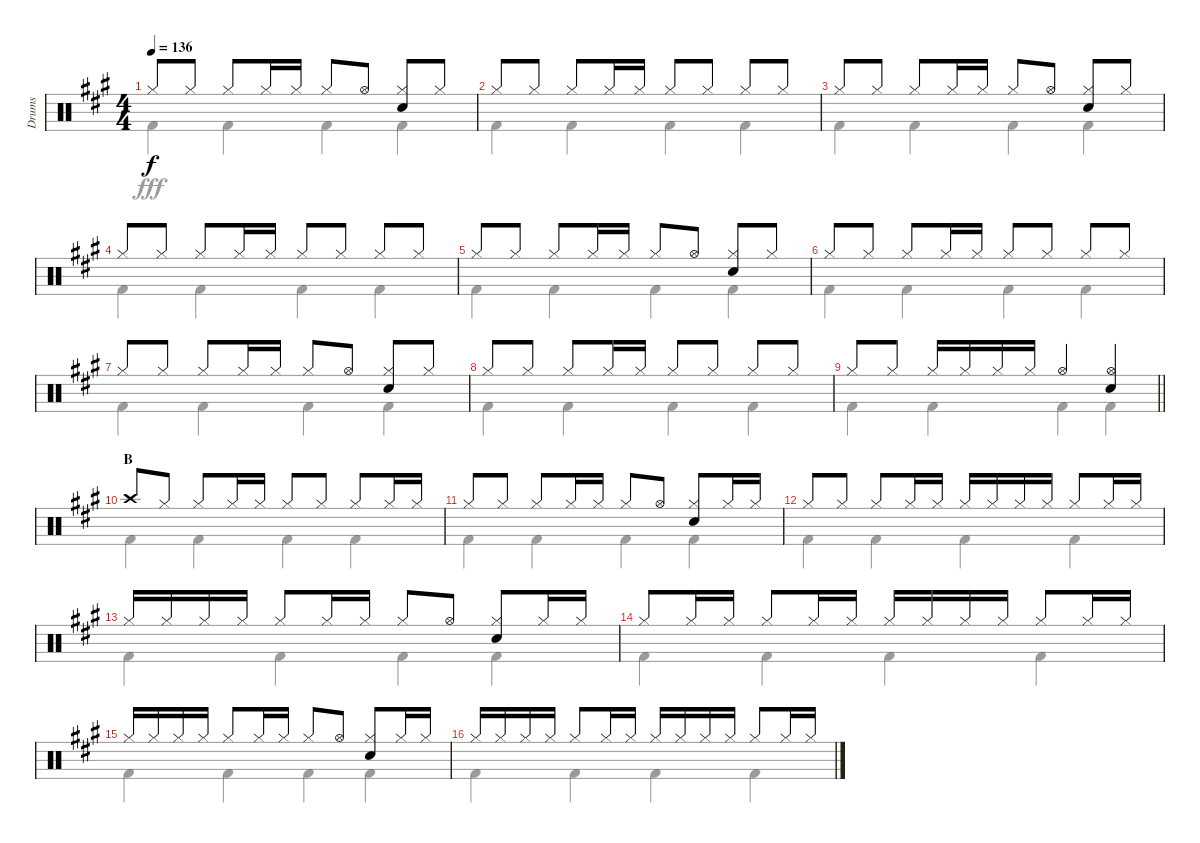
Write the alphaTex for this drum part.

\track ("Drums" "Drums") {instrument percussion}
\staff {score}
\articulation defaults
\voice
\ts (4 4)
\tempo 136
\clef neutral
\ks a "Hi-Hat (closed)".8{dy f} "Hi-Hat (closed)".8 "Hi-Hat (closed)".8 "Hi-Hat (closed)".16 "Hi-Hat (closed)".16 "Hi-Hat (closed)".8 "Hi-Hat (open)".8
("Hi-Hat (closed)" "Snare (hit) 2").8 "Hi-Hat (closed)".8 |
"Hi-Hat (closed)".8 "Hi-Hat (closed)".8 "Hi-Hat (closed)".8 "Hi-Hat (closed)".16 "Hi-Hat (closed)".16 "Hi-Hat (closed)".8 "Hi-Hat (closed)".8 "Hi-Hat (closed)".8 "Hi-Hat (closed)".8 |
"Hi-Hat (closed)".8 "Hi-Hat (closed)".8 "Hi-Hat (closed)".8 "Hi-Hat (closed)".16 "Hi-Hat (closed)".16 "Hi-Hat (closed)".8 "Hi-Hat (open)".8 ("Hi-Hat (closed)" "Snare (hit) 2").8 "Hi-Hat (closed)".8 |
"Hi-Hat (closed)".8 "Hi-Hat (closed)".8 "Hi-Hat (closed)".8 "Hi-Hat (closed)".16 "Hi-Hat (closed)".16 "Hi-Hat (closed)".8 "Hi-Hat (closed)".8 "Hi-Hat (closed)".8 "Hi-Hat (closed)".8 |
"Hi-Hat (closed)".8 "Hi-Hat (closed)".8 "Hi-Hat (closed)".8 "Hi-Hat (closed)".16 "Hi-Hat (closed)".16 "Hi-Hat (closed)".8 "Hi-Hat (open)".8 ("Hi-Hat (closed)" "Snare (hit) 2").8 "Hi-Hat (closed)".8 |
"Hi-Hat (closed)".8 "Hi-Hat (closed)".8 "Hi-Hat (closed)".8 "Hi-Hat (closed)".16 "Hi-Hat (closed)".16 "Hi-Hat (closed)".8 "Hi-Hat (closed)".8 "Hi-Hat (closed)".8 "Hi-Hat (closed)".8 |
"Hi-Hat (closed)".8 "Hi-Hat (closed)".8 "Hi-Hat (closed)".8 "Hi-Hat (closed)".16 "Hi-Hat (closed)".16 "Hi-Hat (closed)".8 "Hi-Hat (open)".8 ("Hi-Hat (closed)" "Snare (hit) 2").8 "Hi-Hat (closed)".8 |
"Hi-Hat (closed)".8 "Hi-Hat (closed)".8 "Hi-Hat (closed)".8 "Hi-Hat (closed)".16 "Hi-Hat (closed)".16 "Hi-Hat (closed)".8 "Hi-Hat (closed)".8 "Hi-Hat (closed)".8 "Hi-Hat (closed)".8 |
\barLineRight lightlight "Hi-Hat (closed)".8 "Hi-Hat (closed)".8 "Hi-Hat (closed)".16 "Hi-Hat (closed)".16 "Hi-Hat (closed)".16 "Hi-Hat (closed)".16 "Hi-Hat (open)".4
("Hi-Hat (open)" "Snare (hit) 2").4 |
\section ("" "B")
"Crash high (hit)".8 "Hi-Hat (closed)".8 "Hi-Hat (closed)".8 "Hi-Hat (closed)".16 "Hi-Hat (closed)".16 "Hi-Hat (closed)".8 "Hi-Hat (closed)".8 "Hi-Hat (closed)".8 "Hi-Hat (closed)".16 "Hi-Hat (closed)".16 |
"Hi-Hat (closed)".8 "Hi-Hat (closed)".8 "Hi-Hat (closed)".8 "Hi-Hat (closed)".16 "Hi-Hat (closed)".16 "Hi-Hat (closed)".8 "Hi-Hat (open)".8 ("Hi-Hat (closed)" "Snare (hit) 2").8 "Hi-Hat (closed)".16 "Hi-Hat (closed)".16 |
"Hi-Hat (closed)".8 "Hi-Hat (closed)".8 "Hi-Hat (closed)".8 "Hi-Hat (closed)".16 "Hi-Hat (closed)".16 "Hi-Hat (closed)".16 "Hi-Hat (closed)".16 "Hi-Hat (closed)".16 "Hi-Hat (closed)".16 "Hi-Hat (closed)".8 "Hi-Hat (closed)".16 "Hi-Hat (closed)".16 |
"Hi-Hat (closed)".16 "Hi-Hat (closed)".16 "Hi-Hat (closed)".16 "Hi-Hat (closed)".16 "Hi-Hat (closed)".8 "Hi-Hat (closed)".16 "Hi-Hat (closed)".16 "Hi-Hat (closed)".8 "Hi-Hat (open)".8 ("Hi-Hat (closed)" "Snare (hit) 2").8 "Hi-Hat (closed)".16 "Hi-Hat (closed)".16 |
"Hi-Hat (closed)".8 "Hi-Hat (closed)".16 "Hi-Hat (closed)".16 "Hi-Hat (closed)".8 "Hi-Hat (closed)".16 "Hi-Hat (closed)".16 "Hi-Hat (closed)".16 "Hi-Hat (closed)".16 "Hi-Hat (closed)".16 "Hi-Hat (closed)".16 "Hi-Hat (closed)".8 "Hi-Hat (closed)".16 "Hi-Hat (closed)".16 |
"Hi-Hat (closed)".16 "Hi-Hat (closed)".16 "Hi-Hat (closed)".16 "Hi-Hat (closed)".16 "Hi-Hat (closed)".8 "Hi-Hat (closed)".16 "Hi-Hat (closed)".16 "Hi-Hat (closed)".8 "Hi-Hat (open)".8 ("Hi-Hat (closed)" "Snare (hit) 2").8 "Hi-Hat (closed)".16 "Hi-Hat (closed)".16 |
"Hi-Hat (closed)".16 "Hi-Hat (closed)".16 "Hi-Hat (closed)".16 "Hi-Hat (closed)".16 "Hi-Hat (closed)".8 "Hi-Hat (closed)".16 "Hi-Hat (closed)".16 "Hi-Hat (closed)".16 "Hi-Hat (closed)".16 "Hi-Hat (closed)".16 "Hi-Hat (closed)".16 "Hi-Hat (closed)".8 "Hi-Hat (closed)".16 "Hi-Hat (closed)".16
\voice
\clef neutral
\ottava regular
\simile none
\ks a "Kick (hit) 2".4{dy fff} "Kick (hit) 2".4 "Kick (hit) 2".4 "Kick (hit) 2".4
|
"Kick (hit) 2".4 "Kick (hit) 2".4 "Kick (hit) 2".4 "Kick (hit) 2".4 |
"Kick (hit) 2".4 "Kick (hit) 2".4 "Kick (hit) 2".4 "Kick (hit) 2".4 |
"Kick (hit) 2".4 "Kick (hit) 2".4 "Kick (hit) 2".4 "Kick (hit) 2".4 |
"Kick (hit) 2".4 "Kick (hit) 2".4 "Kick (hit) 2".4 "Kick (hit) 2".4 |
"Kick (hit) 2".4 "Kick (hit) 2".4 "Kick (hit) 2".4 "Kick (hit) 2".4 |
"Kick (hit) 2".4 "Kick (hit) 2".4 "Kick (hit) 2".4 "Kick (hit) 2".4 |
"Kick (hit) 2".4 "Kick (hit) 2".4 "Kick (hit) 2".4 "Kick (hit) 2".4 |
\barLineRight lightlight "Kick (hit) 2".4 "Kick (hit) 2".4 "Kick (hit) 2".4 "Kick (hit) 2".4
|
"Kick (hit) 2".4 "Kick (hit) 2".4 "Kick (hit) 2".4 "Kick (hit) 2".4 |
"Kick (hit) 2".4 "Kick (hit) 2".4 "Kick (hit) 2".4 "Kick (hit) 2".4 |
"Kick (hit) 2".4 "Kick (hit) 2".4 "Kick (hit) 2".4 "Kick (hit) 2".4 |
"Kick (hit) 2".4 "Kick (hit) 2".4 "Kick (hit) 2".4 "Kick (hit) 2".4 |
"Kick (hit) 2".4 "Kick (hit) 2".4 "Kick (hit) 2".4 "Kick (hit) 2".4 |
"Kick (hit) 2".4 "Kick (hit) 2".4 "Kick (hit) 2".4 "Kick (hit) 2".4 |
"Kick (hit) 2".4 "Kick (hit) 2".4 "Kick (hit) 2".4 "Kick (hit) 2".4
